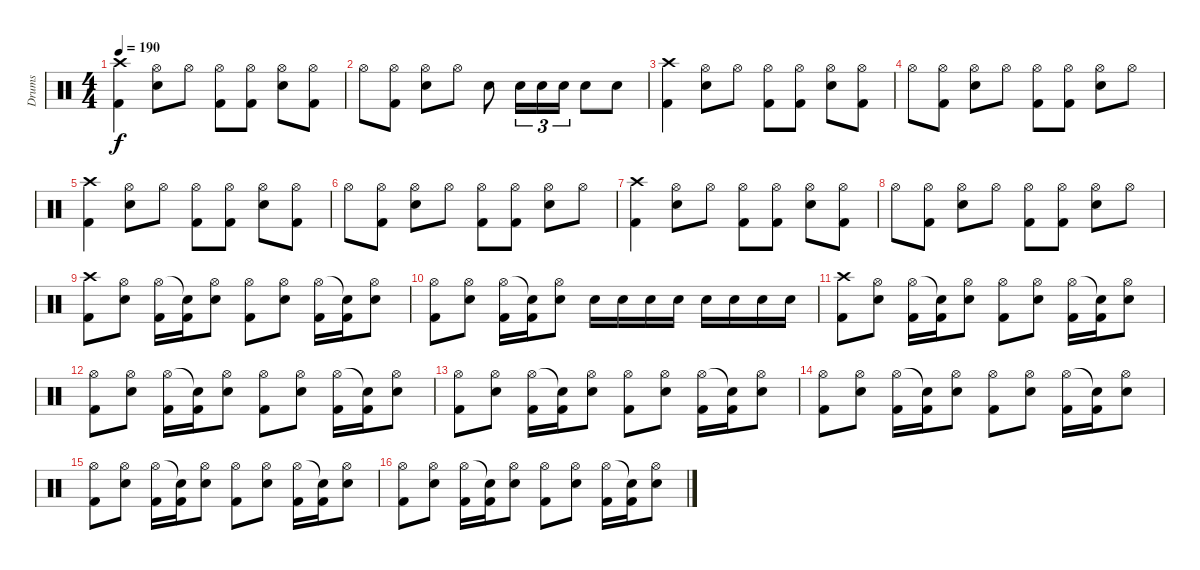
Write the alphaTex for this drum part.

\track ("Drums" "Drums") {instrument percussion}
\staff {score}
\articulation defaults
\ts (4 4)
\tempo 190
\clef neutral
\ks c
("Crash high (hit)" "Kick (hit) 2").4{dy f} ("Hi-Hat (open)" "Snare (hit) 2").8 "Hi-Hat (open)".8 ("Hi-Hat (open)" "Kick (hit) 2").8 ("Hi-Hat (open)" "Kick (hit) 2").8 ("Hi-Hat (open)" "Snare (hit) 2").8 ("Hi-Hat (open)" "Kick (hit) 2").8 |
"Hi-Hat (open)".8 ("Hi-Hat (open)" "Kick (hit) 2").8 ("Hi-Hat (open)" "Snare (hit) 2").8 "Hi-Hat (open)".8 "Snare (hit) 2".8 "Snare (hit) 2".16{tu (3 2)} "Snare (hit) 2".16{tu (3 2)} "Snare (hit) 2".16{tu (3 2)} "Snare (hit) 2".8 "Snare (hit) 2".8 |
("Crash high (hit)" "Kick (hit) 2").4 ("Hi-Hat (open)" "Snare (hit) 2").8 "Hi-Hat (open)".8 ("Hi-Hat (open)" "Kick (hit) 2").8 ("Hi-Hat (open)" "Kick (hit) 2").8 ("Hi-Hat (open)" "Snare (hit) 2").8 ("Hi-Hat (open)" "Kick (hit) 2").8 |
"Hi-Hat (open)".8 ("Hi-Hat (open)" "Kick (hit) 2").8 ("Hi-Hat (open)" "Snare (hit) 2").8 "Hi-Hat (open)".8 ("Hi-Hat (open)" "Kick (hit) 2").8 ("Hi-Hat (open)" "Kick (hit) 2").8 ("Hi-Hat (open)" "Snare (hit) 2").8 "Hi-Hat (open)".8 |
("Crash high (hit)" "Kick (hit) 2").4 ("Hi-Hat (open)" "Snare (hit) 2").8 "Hi-Hat (open)".8 ("Hi-Hat (open)" "Kick (hit) 2").8 ("Hi-Hat (open)" "Kick (hit) 2").8 ("Hi-Hat (open)" "Snare (hit) 2").8 ("Hi-Hat (open)" "Kick (hit) 2").8 |
"Hi-Hat (open)".8 ("Hi-Hat (open)" "Kick (hit) 2").8 ("Hi-Hat (open)" "Snare (hit) 2").8 "Hi-Hat (open)".8 ("Hi-Hat (open)" "Kick (hit) 2").8 ("Hi-Hat (open)" "Kick (hit) 2").8 ("Hi-Hat (open)" "Snare (hit) 2").8 "Hi-Hat (open)".8 |
("Crash high (hit)" "Kick (hit) 2").4 ("Hi-Hat (open)" "Snare (hit) 2").8 "Hi-Hat (open)".8 ("Hi-Hat (open)" "Kick (hit) 2").8 ("Hi-Hat (open)" "Kick (hit) 2").8 ("Hi-Hat (open)" "Snare (hit) 2").8 ("Hi-Hat (open)" "Kick (hit) 2").8 |
"Hi-Hat (open)".8 ("Hi-Hat (open)" "Kick (hit) 2").8 ("Hi-Hat (open)" "Snare (hit) 2").8 "Hi-Hat (open)".8 ("Hi-Hat (open)" "Kick (hit) 2").8 ("Hi-Hat (open)" "Kick (hit) 2").8 ("Hi-Hat (open)" "Snare (hit) 2").8 "Hi-Hat (open)".8 |
("Crash high (hit)" "Kick (hit) 2").8 ("Hi-Hat (open)" "Snare (hit) 2").8 ("Hi-Hat (open)" "Kick (hit) 2").16 ("Snare (hit)"{t} "Kick (hit) 2").16 ("Hi-Hat (open)" "Snare (hit) 2").8 ("Hi-Hat (open)" "Kick (hit) 2").8 ("Hi-Hat (open)" "Snare (hit) 2").8 ("Hi-Hat (open)" "Kick (hit) 2").16 ("Snare (hit)"{t} "Kick (hit) 2").16 ("Hi-Hat (open)" "Snare (hit) 2").8 |
("Hi-Hat (open)" "Kick (hit) 2").8 ("Hi-Hat (open)" "Snare (hit) 2").8 ("Hi-Hat (open)" "Kick (hit) 2").16 ("Snare (hit)"{t} "Kick (hit) 2").16 ("Hi-Hat (open)" "Snare (hit) 2").8 "Snare (hit) 2".16 "Snare (hit) 2".16 "Snare (hit) 2".16 "Snare (hit) 2".16 "Snare (hit) 2".16 "Snare (hit) 2".16 "Snare (hit) 2".16 "Snare (hit) 2".16 |
("Crash high (hit)" "Kick (hit) 2").8 ("Hi-Hat (open)" "Snare (hit) 2").8 ("Hi-Hat (open)" "Kick (hit) 2").16 ("Snare (hit)"{t} "Kick (hit) 2").16 ("Hi-Hat (open)" "Snare (hit) 2").8 ("Hi-Hat (open)" "Kick (hit) 2").8 ("Hi-Hat (open)" "Snare (hit) 2").8 ("Hi-Hat (open)" "Kick (hit) 2").16 ("Snare (hit)"{t} "Kick (hit) 2").16 ("Hi-Hat (open)" "Snare (hit) 2").8 |
("Hi-Hat (open)" "Kick (hit) 2").8 ("Hi-Hat (open)" "Snare (hit) 2").8 ("Hi-Hat (open)" "Kick (hit) 2").16 ("Snare (hit)"{t} "Kick (hit) 2").16 ("Hi-Hat (open)" "Snare (hit) 2").8 ("Hi-Hat (open)" "Kick (hit) 2").8 ("Hi-Hat (open)" "Snare (hit) 2").8 ("Hi-Hat (open)" "Kick (hit) 2").16 ("Snare (hit)"{t} "Kick (hit) 2").16 ("Hi-Hat (open)" "Snare (hit) 2").8 |
("Hi-Hat (open)" "Kick (hit) 2").8 ("Hi-Hat (open)" "Snare (hit) 2").8 ("Hi-Hat (open)" "Kick (hit) 2").16 ("Snare (hit)"{t} "Kick (hit) 2").16 ("Hi-Hat (open)" "Snare (hit) 2").8 ("Hi-Hat (open)" "Kick (hit) 2").8 ("Hi-Hat (open)" "Snare (hit) 2").8 ("Hi-Hat (open)" "Kick (hit) 2").16 ("Snare (hit)"{t} "Kick (hit) 2").16 ("Hi-Hat (open)" "Snare (hit) 2").8 |
("Hi-Hat (open)" "Kick (hit) 2").8 ("Hi-Hat (open)" "Snare (hit) 2").8 ("Hi-Hat (open)" "Kick (hit) 2").16 ("Snare (hit)"{t} "Kick (hit) 2").16 ("Hi-Hat (open)" "Snare (hit) 2").8 ("Hi-Hat (open)" "Kick (hit) 2").8 ("Hi-Hat (open)" "Snare (hit) 2").8 ("Hi-Hat (open)" "Kick (hit) 2").16 ("Snare (hit)"{t} "Kick (hit) 2").16 ("Hi-Hat (open)" "Snare (hit) 2").8 |
("Hi-Hat (open)" "Kick (hit) 2").8 ("Hi-Hat (open)" "Snare (hit) 2").8 ("Hi-Hat (open)" "Kick (hit) 2").16 ("Snare (hit)"{t} "Kick (hit) 2").16 ("Hi-Hat (open)" "Snare (hit) 2").8 ("Hi-Hat (open)" "Kick (hit) 2").8 ("Hi-Hat (open)" "Snare (hit) 2").8 ("Hi-Hat (open)" "Kick (hit) 2").16 ("Snare (hit)"{t} "Kick (hit) 2").16 ("Hi-Hat (open)" "Snare (hit) 2").8 |
("Hi-Hat (open)" "Kick (hit) 2").8 ("Hi-Hat (open)" "Snare (hit) 2").8 ("Hi-Hat (open)" "Kick (hit) 2").16 ("Snare (hit)"{t} "Kick (hit) 2").16 ("Hi-Hat (open)" "Snare (hit) 2").8 ("Hi-Hat (open)" "Kick (hit) 2").8 ("Hi-Hat (open)" "Snare (hit) 2").8 ("Hi-Hat (open)" "Kick (hit) 2").16 ("Snare (hit)"{t} "Kick (hit) 2").16 ("Hi-Hat (open)" "Snare (hit) 2").8
